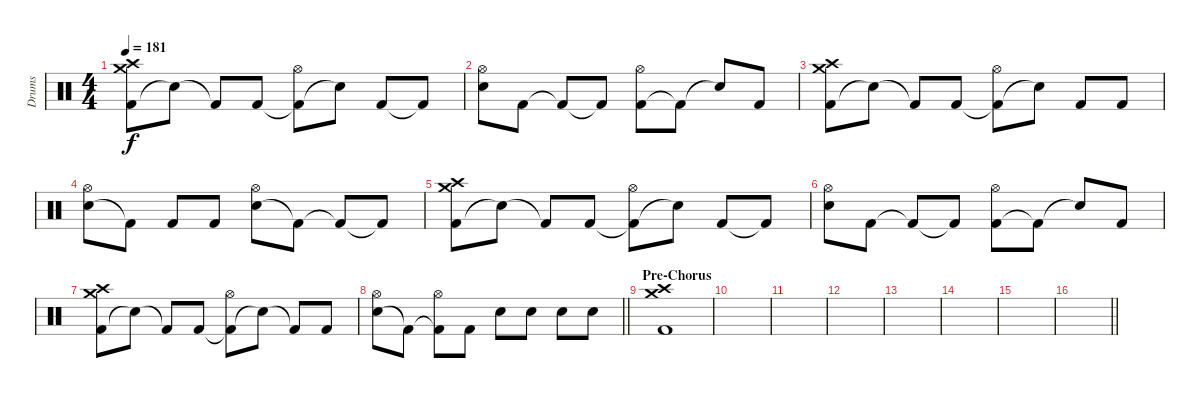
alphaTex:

\track ("Drums" "Drums") {instrument percussion}
\staff {score}
\articulation defaults
\ts (4 4)
\tempo 181
\clef neutral
\ks c
("Kick (hit) 2" "Crash medium (hit)" "Crash high (hit)").8{dy f} "Snare (hit)"{t}.8 "Kick (hit) 2"{t}.8 "Kick (hit) 2".8 ("Kick (hit) 2"{t} "Hi-Hat (open)").8 "Snare (hit)"{t}.8 "Kick (hit) 2".8 "Kick (hit) 2"{t}.8 |
("Electric Snare (hit)" "Hi-Hat (open)").8 "Kick (hit) 2".8 "Kick (hit) 2"{t}.8 "Kick (hit) 2"{t}.8 ("Kick (hit) 2" "Hi-Hat (open)").8 "Kick (hit) 2"{t}.8 "Snare (hit)"{t}.8 "Kick (hit) 2".8 |
("Kick (hit) 2" "Crash medium (hit)" "Crash high (hit)").8 "Snare (hit)"{t}.8 "Kick (hit) 2"{t}.8 "Kick (hit) 2".8 ("Kick (hit) 2"{t} "Hi-Hat (open)").8 "Snare (hit)"{t}.8 "Kick (hit) 2".8 "Kick (hit) 2".8 |
("Electric Snare (hit)" "Hi-Hat (open)").8 "Kick (hit) 2"{t}.8 "Kick (hit) 2".8 "Kick (hit) 2".8 ("Electric Snare (hit)" "Hi-Hat (open)").8 "Kick (hit) 2"{t}.8 "Kick (hit) 2"{t}.8 "Kick (hit) 2"{t}.8 |
("Kick (hit) 2" "Crash medium (hit)" "Crash high (hit)").8 "Snare (hit)"{t}.8 "Kick (hit) 2"{t}.8 "Kick (hit) 2".8 ("Kick (hit) 2"{t} "Hi-Hat (open)").8 "Snare (hit)"{t}.8 "Kick (hit) 2".8 "Kick (hit) 2"{t}.8 |
("Electric Snare (hit)" "Hi-Hat (open)").8 "Kick (hit) 2".8 "Kick (hit) 2"{t}.8 "Kick (hit) 2"{t}.8 ("Kick (hit) 2" "Hi-Hat (open)").8 "Kick (hit) 2"{t}.8 "Snare (hit)"{t}.8 "Kick (hit) 2".8 |
("Kick (hit) 2" "Crash medium (hit)" "Crash high (hit)").8 "Snare (hit)"{t}.8 "Kick (hit) 2"{t}.8 "Kick (hit) 2".8 ("Kick (hit) 2"{t} "Hi-Hat (open)").8 "Snare (hit)"{t}.8 "Kick (hit) 2"{t}.8 "Kick (hit) 2".8 |
\barLineRight lightlight
("Electric Snare (hit)" "Hi-Hat (open)").8 "Kick (hit) 2"{t}.8 ("Kick (hit) 2"{t} "Hi-Hat (open)").8 "Kick (hit) 2".8 "Electric Snare (hit)".8 "Electric Snare (hit)".8 "Electric Snare (hit)".8 "Electric Snare (hit)".8 |
\section ("" "Pre-Chorus")
("Kick (hit) 2" "Crash medium (hit)" "Crash high (hit)").1 |
|
|
|
|
|
|
\barLineRight lightlight
